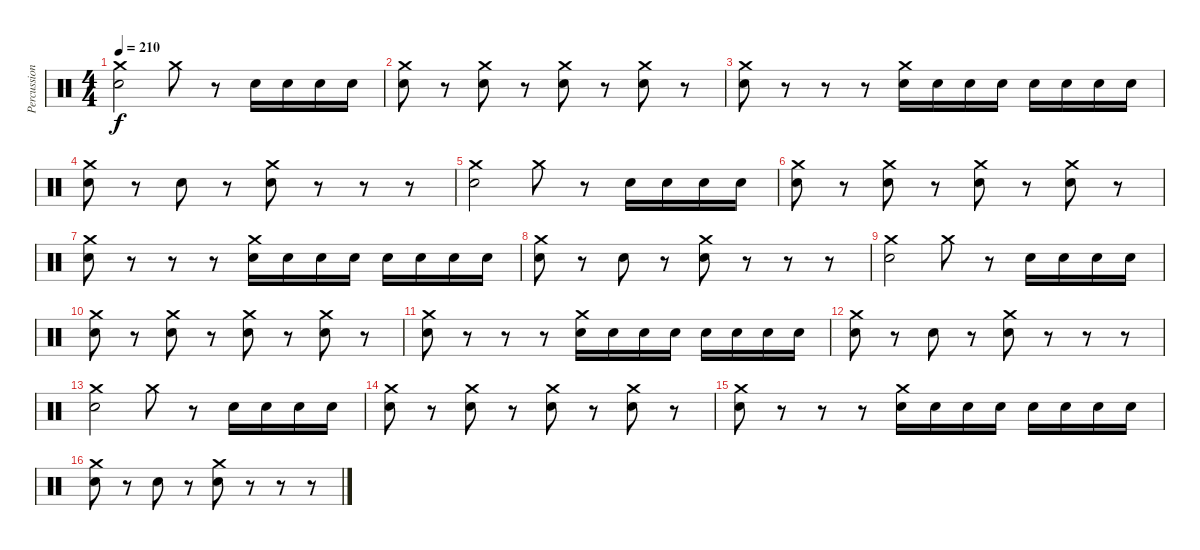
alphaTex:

\track ("Percussion" "Percussion") {instrument percussion}
\staff {score}
\articulation defaults
\ts (4 4)
\tempo 210
\clef neutral
\ks c
("Crash medium (hit)" "Electric Snare (hit)").2{dy f} "Crash medium (hit)".8 r.8 "Electric Snare (hit)".16 "Electric Snare (hit)".16 "Electric Snare (hit)".16 "Electric Snare (hit)".16 |
("Crash medium (hit)" "Electric Snare (hit)").8 r.8 ("Crash medium (hit)" "Electric Snare (hit)").8 r.8 ("Crash medium (hit)" "Electric Snare (hit)").8 r.8 ("Crash medium (hit)" "Electric Snare (hit)").8 r.8 |
("Crash medium (hit)" "Electric Snare (hit)").8 r.8 r.8 r.8 ("Crash medium (hit)" "Electric Snare (hit)").16 "Electric Snare (hit)".16 "Electric Snare (hit)".16 "Electric Snare (hit)".16 "Electric Snare (hit)".16 "Electric Snare (hit)".16 "Electric Snare (hit)".16 "Electric Snare (hit)".16 |
("Crash medium (hit)" "Electric Snare (hit)").8 r.8 "Electric Snare (hit)".8 r.8 ("Crash medium (hit)" "Electric Snare (hit)").8 r.8 r.8 r.8 |
("Crash medium (hit)" "Electric Snare (hit)").2 "Crash medium (hit)".8 r.8 "Electric Snare (hit)".16 "Electric Snare (hit)".16 "Electric Snare (hit)".16 "Electric Snare (hit)".16 |
("Crash medium (hit)" "Electric Snare (hit)").8 r.8 ("Crash medium (hit)" "Electric Snare (hit)").8 r.8 ("Crash medium (hit)" "Electric Snare (hit)").8 r.8 ("Crash medium (hit)" "Electric Snare (hit)").8 r.8 |
("Crash medium (hit)" "Electric Snare (hit)").8 r.8 r.8 r.8 ("Crash medium (hit)" "Electric Snare (hit)").16 "Electric Snare (hit)".16 "Electric Snare (hit)".16 "Electric Snare (hit)".16 "Electric Snare (hit)".16 "Electric Snare (hit)".16 "Electric Snare (hit)".16 "Electric Snare (hit)".16 |
("Crash medium (hit)" "Electric Snare (hit)").8 r.8 "Electric Snare (hit)".8 r.8 ("Crash medium (hit)" "Electric Snare (hit)").8 r.8 r.8 r.8 |
("Crash medium (hit)" "Electric Snare (hit)").2 "Crash medium (hit)".8 r.8 "Electric Snare (hit)".16 "Electric Snare (hit)".16 "Electric Snare (hit)".16 "Electric Snare (hit)".16 |
("Crash medium (hit)" "Electric Snare (hit)").8 r.8 ("Crash medium (hit)" "Electric Snare (hit)").8 r.8 ("Crash medium (hit)" "Electric Snare (hit)").8 r.8 ("Crash medium (hit)" "Electric Snare (hit)").8 r.8 |
("Crash medium (hit)" "Electric Snare (hit)").8 r.8 r.8 r.8 ("Crash medium (hit)" "Electric Snare (hit)").16 "Electric Snare (hit)".16 "Electric Snare (hit)".16 "Electric Snare (hit)".16 "Electric Snare (hit)".16 "Electric Snare (hit)".16 "Electric Snare (hit)".16 "Electric Snare (hit)".16 |
("Crash medium (hit)" "Electric Snare (hit)").8 r.8 "Electric Snare (hit)".8 r.8 ("Crash medium (hit)" "Electric Snare (hit)").8 r.8 r.8 r.8 |
("Crash medium (hit)" "Electric Snare (hit)").2 "Crash medium (hit)".8 r.8 "Electric Snare (hit)".16 "Electric Snare (hit)".16 "Electric Snare (hit)".16 "Electric Snare (hit)".16 |
("Crash medium (hit)" "Electric Snare (hit)").8 r.8 ("Crash medium (hit)" "Electric Snare (hit)").8 r.8 ("Crash medium (hit)" "Electric Snare (hit)").8 r.8 ("Crash medium (hit)" "Electric Snare (hit)").8 r.8 |
("Crash medium (hit)" "Electric Snare (hit)").8 r.8 r.8 r.8 ("Crash medium (hit)" "Electric Snare (hit)").16 "Electric Snare (hit)".16 "Electric Snare (hit)".16 "Electric Snare (hit)".16 "Electric Snare (hit)".16 "Electric Snare (hit)".16 "Electric Snare (hit)".16 "Electric Snare (hit)".16 |
("Crash medium (hit)" "Electric Snare (hit)").8 r.8 "Electric Snare (hit)".8 r.8 ("Crash medium (hit)" "Electric Snare (hit)").8 r.8 r.8 r.8
